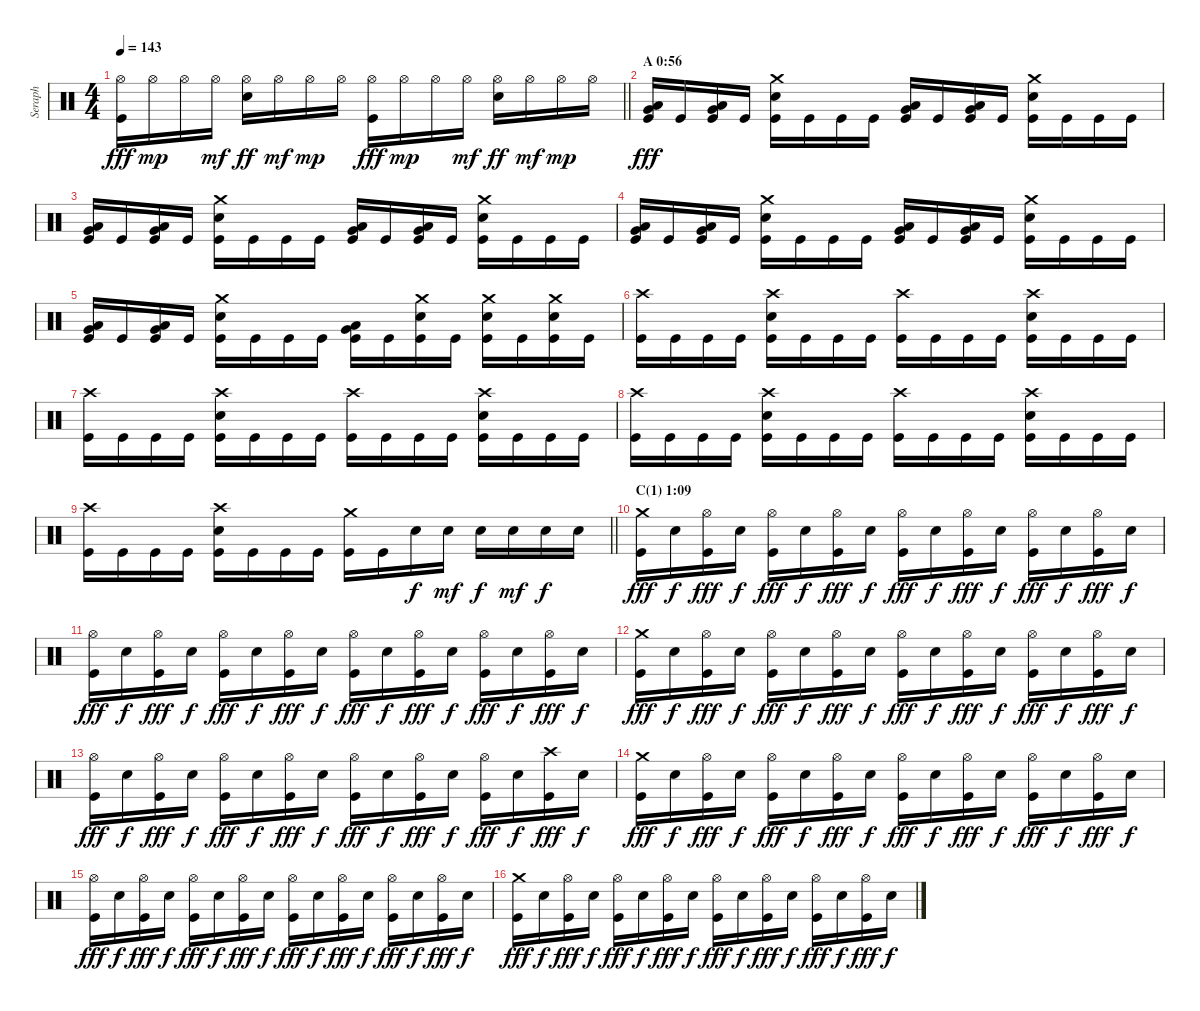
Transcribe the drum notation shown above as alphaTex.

\track ("Seraph" "Seraph") {instrument percussion}
\staff {score}
\articulation defaults
\ts (4 4)
\tempo 143
\clef neutral
\barLineRight lightlight
\ks c
("Hi-Hat (open)" "Kick (hit)").16{dy fff} "Hi-Hat (open)".16{dy mp} "Hi-Hat (open)".16 "Hi-Hat (open)".16{dy mf} ("Hi-Hat (open)" "Electric Snare (hit)").16{dy ff} "Hi-Hat (open)".16{dy mf} "Hi-Hat (open)".16{dy mp} "Hi-Hat (open)".16 ("Hi-Hat (open)" "Kick (hit)").16{dy fff} "Hi-Hat (open)".16{dy mp} "Hi-Hat (open)".16 "Hi-Hat (open)".16{dy mf} ("Hi-Hat (open)" "Electric Snare (hit)").16{dy ff} "Hi-Hat (open)".16{dy mf} "Hi-Hat (open)".16{dy mp} "Hi-Hat (open)".16 |
\section ("" "A 0:56")
("Very Low Tom (hit)" "Low Floor Tom (hit)" "Kick (hit)").16{dy fff} "Kick (hit)".16 ("Very Low Tom (hit)" "Low Tom (hit)" "Kick (hit)").16 "Kick (hit)".16 ("Crash medium (hit)" "Electric Snare (hit)" "Kick (hit)").16 "Kick (hit)".16 "Kick (hit)".16 "Kick (hit)".16 ("Very Low Tom (hit)" "Low Floor Tom (hit)" "Kick (hit)").16 "Kick (hit)".16 ("Very Low Tom (hit)" "Low Tom (hit)" "Kick (hit)").16 "Kick (hit)".16 ("Crash medium (hit)" "Electric Snare (hit)" "Kick (hit)").16 "Kick (hit)".16 "Kick (hit)".16 "Kick (hit)".16 |
("Very Low Tom (hit)" "Low Floor Tom (hit)" "Kick (hit)").16 "Kick (hit)".16 ("Very Low Tom (hit)" "Low Tom (hit)" "Kick (hit)").16 "Kick (hit)".16 ("Crash medium (hit)" "Electric Snare (hit)" "Kick (hit)").16 "Kick (hit)".16 "Kick (hit)".16 "Kick (hit)".16 ("Very Low Tom (hit)" "Low Floor Tom (hit)" "Kick (hit)").16 "Kick (hit)".16 ("Very Low Tom (hit)" "Low Tom (hit)" "Kick (hit)").16 "Kick (hit)".16 ("Crash medium (hit)" "Electric Snare (hit)" "Kick (hit)").16 "Kick (hit)".16 "Kick (hit)".16 "Kick (hit)".16 |
("Very Low Tom (hit)" "Low Floor Tom (hit)" "Kick (hit)").16 "Kick (hit)".16 ("Very Low Tom (hit)" "Low Tom (hit)" "Kick (hit)").16 "Kick (hit)".16 ("Crash medium (hit)" "Electric Snare (hit)" "Kick (hit)").16 "Kick (hit)".16 "Kick (hit)".16 "Kick (hit)".16 ("Very Low Tom (hit)" "Low Floor Tom (hit)" "Kick (hit)").16 "Kick (hit)".16 ("Very Low Tom (hit)" "Low Tom (hit)" "Kick (hit)").16 "Kick (hit)".16 ("Crash medium (hit)" "Electric Snare (hit)" "Kick (hit)").16 "Kick (hit)".16 "Kick (hit)".16 "Kick (hit)".16 |
("Very Low Tom (hit)" "Low Floor Tom (hit)" "Kick (hit)").16 "Kick (hit)".16 ("Very Low Tom (hit)" "Low Tom (hit)" "Kick (hit)").16 "Kick (hit)".16 ("Crash medium (hit)" "Electric Snare (hit)" "Kick (hit)").16 "Kick (hit)".16 "Kick (hit)".16 "Kick (hit)".16 ("Very Low Tom (hit)" "Low Floor Tom (hit)" "Kick (hit)").16 "Kick (hit)".16 ("Crash medium (hit)" "Electric Snare (hit)" "Kick (hit)").16 "Kick (hit)".16 ("Crash medium (hit)" "Electric Snare (hit)" "Kick (hit)").16 "Kick (hit)".16 ("Crash medium (hit)" "Electric Snare (hit)" "Kick (hit)").16 "Kick (hit)".16 |
("Crash high (hit)" "Kick (hit)").16 "Kick (hit)".16 "Kick (hit)".16 "Kick (hit)".16 ("Crash high (hit)" "Electric Snare (hit)" "Kick (hit)").16 "Kick (hit)".16 "Kick (hit)".16 "Kick (hit)".16 ("Crash high (hit)" "Kick (hit)").16 "Kick (hit)".16 "Kick (hit)".16 "Kick (hit)".16 ("Crash high (hit)" "Electric Snare (hit)" "Kick (hit)").16 "Kick (hit)".16 "Kick (hit)".16 "Kick (hit)".16 |
("Crash high (hit)" "Kick (hit)").16 "Kick (hit)".16 "Kick (hit)".16 "Kick (hit)".16 ("Crash high (hit)" "Electric Snare (hit)" "Kick (hit)").16 "Kick (hit)".16 "Kick (hit)".16 "Kick (hit)".16 ("Crash high (hit)" "Kick (hit)").16 "Kick (hit)".16 "Kick (hit)".16 "Kick (hit)".16 ("Crash high (hit)" "Electric Snare (hit)" "Kick (hit)").16 "Kick (hit)".16 "Kick (hit)".16 "Kick (hit)".16 |
("Crash high (hit)" "Kick (hit)").16 "Kick (hit)".16 "Kick (hit)".16 "Kick (hit)".16 ("Crash high (hit)" "Electric Snare (hit)" "Kick (hit)").16 "Kick (hit)".16 "Kick (hit)".16 "Kick (hit)".16 ("Crash high (hit)" "Kick (hit)").16 "Kick (hit)".16 "Kick (hit)".16 "Kick (hit)".16 ("Crash high (hit)" "Electric Snare (hit)" "Kick (hit)").16 "Kick (hit)".16 "Kick (hit)".16 "Kick (hit)".16 |
\barLineRight lightlight
("Crash high (hit)" "Kick (hit)").16 "Kick (hit)".16 "Kick (hit)".16 "Kick (hit)".16 ("Crash high (hit)" "Electric Snare (hit)" "Kick (hit)").16 "Kick (hit)".16 "Kick (hit)".16 "Kick (hit)".16 ("Crash medium (hit)" "Kick (hit)").16 "Kick (hit)".16 "Electric Snare (hit)".16{dy f} "Electric Snare (hit)".16{dy mf} "Electric Snare (hit)".16{dy f} "Electric Snare (hit)".16{dy mf} "Electric Snare (hit)".16{dy f} "Electric Snare (hit)".16 |
\section ("" "C(1) 1:09")
("Crash medium (hit)" "Kick (hit)").16{dy fff} "Electric Snare (hit)".16{dy f} ("Hi-Hat (open)" "Kick (hit)").16{dy fff} "Electric Snare (hit)".16{dy f} ("Hi-Hat (open)" "Kick (hit)").16{dy fff} "Electric Snare (hit)".16{dy f} ("Hi-Hat (open)" "Kick (hit)").16{dy fff} "Electric Snare (hit)".16{dy f} ("Hi-Hat (open)" "Kick (hit)").16{dy fff} "Electric Snare (hit)".16{dy f} ("Hi-Hat (open)" "Kick (hit)").16{dy fff} "Electric Snare (hit)".16{dy f} ("Hi-Hat (open)" "Kick (hit)").16{dy fff} "Electric Snare (hit)".16{dy f} ("Hi-Hat (open)" "Kick (hit)").16{dy fff} "Electric Snare (hit)".16{dy f} |
("Hi-Hat (open)" "Kick (hit)").16{dy fff} "Electric Snare (hit)".16{dy f} ("Hi-Hat (open)" "Kick (hit)").16{dy fff} "Electric Snare (hit)".16{dy f} ("Hi-Hat (open)" "Kick (hit)").16{dy fff} "Electric Snare (hit)".16{dy f} ("Hi-Hat (open)" "Kick (hit)").16{dy fff} "Electric Snare (hit)".16{dy f} ("Hi-Hat (open)" "Kick (hit)").16{dy fff} "Electric Snare (hit)".16{dy f} ("Hi-Hat (open)" "Kick (hit)").16{dy fff} "Electric Snare (hit)".16{dy f} ("Hi-Hat (open)" "Kick (hit)").16{dy fff} "Electric Snare (hit)".16{dy f} ("Hi-Hat (open)" "Kick (hit)").16{dy fff} "Electric Snare (hit)".16{dy f} |
("Crash medium (hit)" "Kick (hit)").16{dy fff} "Electric Snare (hit)".16{dy f} ("Hi-Hat (open)" "Kick (hit)").16{dy fff} "Electric Snare (hit)".16{dy f} ("Hi-Hat (open)" "Kick (hit)").16{dy fff} "Electric Snare (hit)".16{dy f} ("Hi-Hat (open)" "Kick (hit)").16{dy fff} "Electric Snare (hit)".16{dy f} ("Hi-Hat (open)" "Kick (hit)").16{dy fff} "Electric Snare (hit)".16{dy f} ("Hi-Hat (open)" "Kick (hit)").16{dy fff} "Electric Snare (hit)".16{dy f} ("Hi-Hat (open)" "Kick (hit)").16{dy fff} "Electric Snare (hit)".16{dy f} ("Hi-Hat (open)" "Kick (hit)").16{dy fff} "Electric Snare (hit)".16{dy f} |
("Hi-Hat (open)" "Kick (hit)").16{dy fff} "Electric Snare (hit)".16{dy f} ("Hi-Hat (open)" "Kick (hit)").16{dy fff} "Electric Snare (hit)".16{dy f} ("Hi-Hat (open)" "Kick (hit)").16{dy fff} "Electric Snare (hit)".16{dy f} ("Hi-Hat (open)" "Kick (hit)").16{dy fff} "Electric Snare (hit)".16{dy f} ("Hi-Hat (open)" "Kick (hit)").16{dy fff} "Electric Snare (hit)".16{dy f} ("Hi-Hat (open)" "Kick (hit)").16{dy fff} "Electric Snare (hit)".16{dy f} ("Hi-Hat (open)" "Kick (hit)").16{dy fff} "Electric Snare (hit)".16{dy f} ("Crash high (hit)" "Kick (hit)").16{dy fff} "Electric Snare (hit)".16{dy f} |
("Crash medium (hit)" "Kick (hit)").16{dy fff} "Electric Snare (hit)".16{dy f} ("Hi-Hat (open)" "Kick (hit)").16{dy fff} "Electric Snare (hit)".16{dy f} ("Hi-Hat (open)" "Kick (hit)").16{dy fff} "Electric Snare (hit)".16{dy f} ("Hi-Hat (open)" "Kick (hit)").16{dy fff} "Electric Snare (hit)".16{dy f} ("Hi-Hat (open)" "Kick (hit)").16{dy fff} "Electric Snare (hit)".16{dy f} ("Hi-Hat (open)" "Kick (hit)").16{dy fff} "Electric Snare (hit)".16{dy f} ("Hi-Hat (open)" "Kick (hit)").16{dy fff} "Electric Snare (hit)".16{dy f} ("Hi-Hat (open)" "Kick (hit)").16{dy fff} "Electric Snare (hit)".16{dy f} |
("Hi-Hat (open)" "Kick (hit)").16{dy fff} "Electric Snare (hit)".16{dy f} ("Hi-Hat (open)" "Kick (hit)").16{dy fff} "Electric Snare (hit)".16{dy f} ("Hi-Hat (open)" "Kick (hit)").16{dy fff} "Electric Snare (hit)".16{dy f} ("Hi-Hat (open)" "Kick (hit)").16{dy fff} "Electric Snare (hit)".16{dy f} ("Hi-Hat (open)" "Kick (hit)").16{dy fff} "Electric Snare (hit)".16{dy f} ("Hi-Hat (open)" "Kick (hit)").16{dy fff} "Electric Snare (hit)".16{dy f} ("Hi-Hat (open)" "Kick (hit)").16{dy fff} "Electric Snare (hit)".16{dy f} ("Hi-Hat (open)" "Kick (hit)").16{dy fff} "Electric Snare (hit)".16{dy f} |
("Crash medium (hit)" "Kick (hit)").16{dy fff} "Electric Snare (hit)".16{dy f} ("Hi-Hat (open)" "Kick (hit)").16{dy fff} "Electric Snare (hit)".16{dy f} ("Hi-Hat (open)" "Kick (hit)").16{dy fff} "Electric Snare (hit)".16{dy f} ("Hi-Hat (open)" "Kick (hit)").16{dy fff} "Electric Snare (hit)".16{dy f} ("Hi-Hat (open)" "Kick (hit)").16{dy fff} "Electric Snare (hit)".16{dy f} ("Hi-Hat (open)" "Kick (hit)").16{dy fff} "Electric Snare (hit)".16{dy f} ("Hi-Hat (open)" "Kick (hit)").16{dy fff} "Electric Snare (hit)".16{dy f} ("Hi-Hat (open)" "Kick (hit)").16{dy fff} "Electric Snare (hit)".16{dy f}
